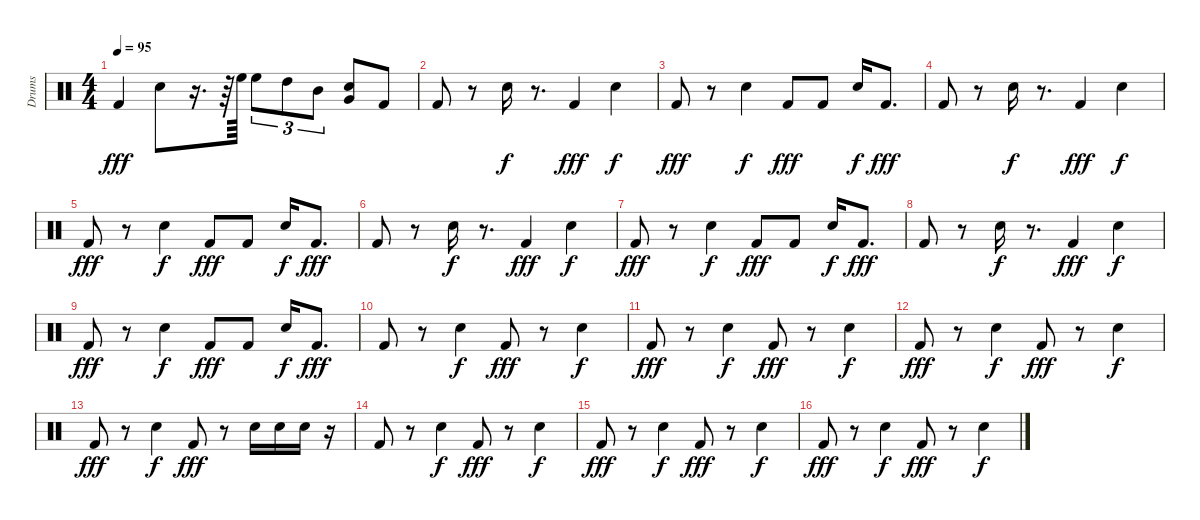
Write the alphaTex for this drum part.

\bracketExtendMode groupsimilarinstruments
\otherSystemsTrackNameOrientation horizontal
\track ("Drumkit" "Drums") {instrument percussion}
\staff {score}
\articulation defaults
\ts (4 4)
\tempo 95
\clef neutral
\ks c "Kick (hit) 2".4{dy fff} "Snare (hit) 2".8
r.16{d} r.64 "High Floor Tom (hit)".64 "High Floor Tom (hit)".8{tu (3 2)} "High Tom (hit)".8{tu (3 2)} "Mid Tom (hit)".8{tu (3 2)} ("Very Low Tom (hit)" "Snare (hit) 2").8 "Kick (hit) 2".8 |
"Kick (hit) 2".8 r.8 "Snare (hit) 2".16{dy f} r.8{d} "Kick (hit) 2".4{dy fff} "Snare (hit) 2".4{dy f} |
"Kick (hit) 2".8{dy fff} r.8 "Snare (hit) 2".4{dy f} "Kick (hit) 2".8{dy fff} "Kick (hit) 2".8 "Snare (hit) 2".16{dy f} "Kick (hit) 2".8{d dy fff} |
"Kick (hit) 2".8 r.8 "Snare (hit) 2".16{dy f} r.8{d} "Kick (hit) 2".4{dy fff} "Snare (hit) 2".4{dy f} |
"Kick (hit) 2".8{dy fff} r.8 "Snare (hit) 2".4{dy f} "Kick (hit) 2".8{dy fff} "Kick (hit) 2".8 "Snare (hit) 2".16{dy f} "Kick (hit) 2".8{d dy fff} |
"Kick (hit) 2".8 r.8 "Snare (hit) 2".16{dy f} r.8{d} "Kick (hit) 2".4{dy fff} "Snare (hit) 2".4{dy f} |
"Kick (hit) 2".8{dy fff} r.8 "Snare (hit) 2".4{dy f} "Kick (hit) 2".8{dy fff} "Kick (hit) 2".8 "Snare (hit) 2".16{dy f} "Kick (hit) 2".8{d dy fff} |
"Kick (hit) 2".8 r.8 "Snare (hit) 2".16{dy f} r.8{d} "Kick (hit) 2".4{dy fff} "Snare (hit) 2".4{dy f} |
"Kick (hit) 2".8{dy fff} r.8 "Snare (hit) 2".4{dy f} "Kick (hit) 2".8{dy fff} "Kick (hit) 2".8 "Snare (hit) 2".16{dy f} "Kick (hit) 2".8{d dy fff} |
"Kick (hit) 2".8 r.8 "Snare (hit) 2".4{dy f} "Kick (hit) 2".8{dy fff} r.8 "Snare (hit) 2".4{dy f} |
"Kick (hit) 2".8{dy fff} r.8 "Snare (hit) 2".4{dy f} "Kick (hit) 2".8{dy fff} r.8 "Snare (hit) 2".4{dy f} |
"Kick (hit) 2".8{dy fff} r.8 "Snare (hit) 2".4{dy f} "Kick (hit) 2".8{dy fff} r.8 "Snare (hit) 2".4{dy f} |
"Kick (hit) 2".8{dy fff} r.8 "Snare (hit) 2".4{dy f} "Kick (hit) 2".8{dy fff} r.8 "Snare (hit) 2".16 "Snare (hit) 2".16 "Snare (hit) 2".16 r.16 |
"Kick (hit) 2".8 r.8 "Snare (hit) 2".4{dy f} "Kick (hit) 2".8{dy fff} r.8 "Snare (hit) 2".4{dy f} |
"Kick (hit) 2".8{dy fff} r.8 "Snare (hit) 2".4{dy f} "Kick (hit) 2".8{dy fff} r.8 "Snare (hit) 2".4{dy f} |
"Kick (hit) 2".8{dy fff} r.8 "Snare (hit) 2".4{dy f} "Kick (hit) 2".8{dy fff} r.8 "Snare (hit) 2".4{dy f}
